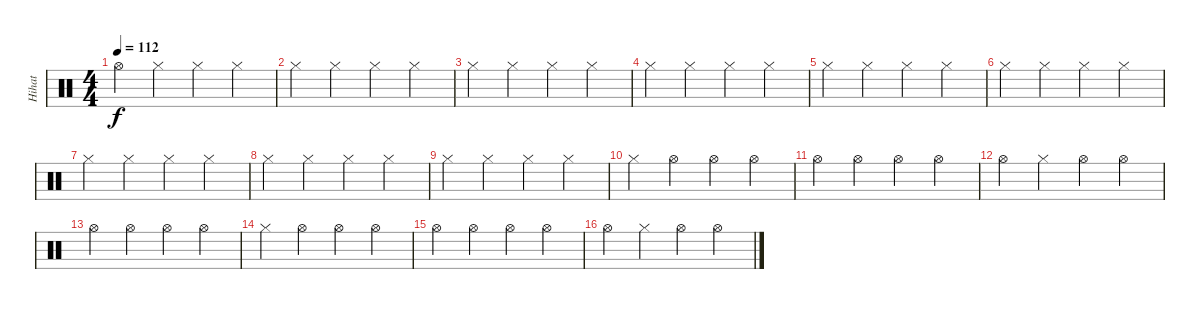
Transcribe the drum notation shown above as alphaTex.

\track ("Hihat" "Hihat") {instrument percussion}
\staff {score}
\articulation defaults
\ts (4 4)
\tempo 112
\clef neutral
\ks c "Hi-Hat (open)".4{dy f} "Hi-Hat (closed)".4 "Hi-Hat (closed)".4 "Hi-Hat (closed)".4
|
"Hi-Hat (closed)".4 "Hi-Hat (closed)".4 "Hi-Hat (closed)".4 "Hi-Hat (closed)".4 |
"Hi-Hat (closed)".4 "Hi-Hat (closed)".4 "Hi-Hat (closed)".4 "Hi-Hat (closed)".4 |
"Hi-Hat (closed)".4 "Hi-Hat (closed)".4 "Hi-Hat (closed)".4 "Hi-Hat (closed)".4 |
"Hi-Hat (closed)".4 "Hi-Hat (closed)".4 "Hi-Hat (closed)".4 "Hi-Hat (closed)".4 |
"Hi-Hat (closed)".4 "Hi-Hat (closed)".4 "Hi-Hat (closed)".4 "Hi-Hat (closed)".4 |
"Hi-Hat (closed)".4 "Hi-Hat (closed)".4 "Hi-Hat (closed)".4 "Hi-Hat (closed)".4 |
"Hi-Hat (closed)".4 "Hi-Hat (closed)".4 "Hi-Hat (closed)".4 "Hi-Hat (closed)".4 |
"Hi-Hat (closed)".4 "Hi-Hat (closed)".4 "Hi-Hat (closed)".4 "Hi-Hat (closed)".4 |
"Hi-Hat (closed)".4 "Hi-Hat (open)".4 "Hi-Hat (open)".4 "Hi-Hat (open)".4 |
"Hi-Hat (open)".4 "Hi-Hat (open)".4 "Hi-Hat (open)".4 "Hi-Hat (open)".4 |
"Hi-Hat (open)".4 "Hi-Hat (closed)".4 "Hi-Hat (open)".4 "Hi-Hat (open)".4 |
"Hi-Hat (open)".4 "Hi-Hat (open)".4 "Hi-Hat (open)".4 "Hi-Hat (open)".4 |
"Hi-Hat (closed)".4 "Hi-Hat (open)".4 "Hi-Hat (open)".4 "Hi-Hat (open)".4 |
"Hi-Hat (open)".4 "Hi-Hat (open)".4 "Hi-Hat (open)".4 "Hi-Hat (open)".4 |
"Hi-Hat (open)".4 "Hi-Hat (closed)".4 "Hi-Hat (open)".4 "Hi-Hat (open)".4
